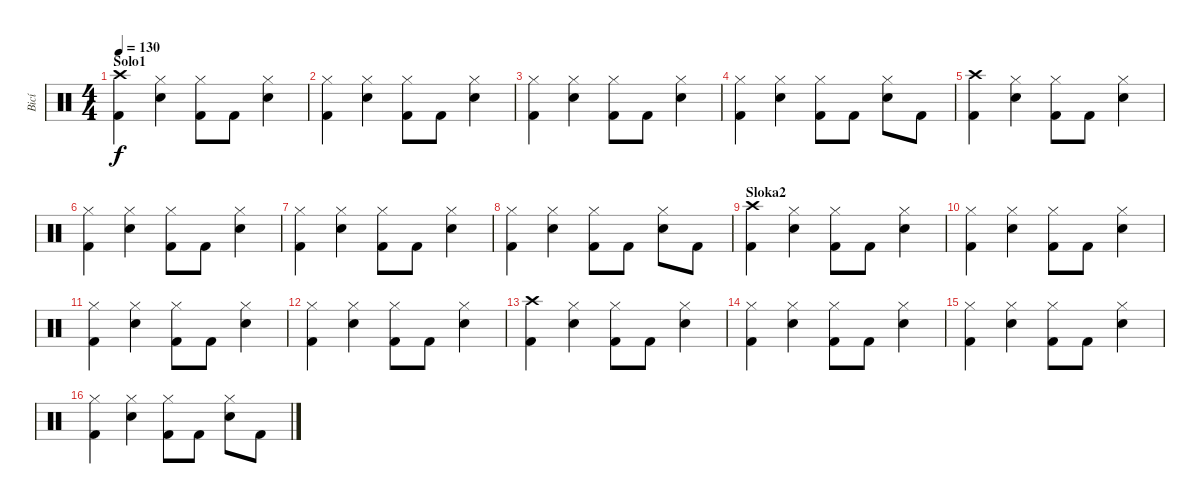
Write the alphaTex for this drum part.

\track ("Bicí" "Bicí") {instrument percussion}
\staff {score}
\articulation defaults
\ts (4 4)
\section ("" "Solo1")
\tempo 130
\clef neutral
\ks c
("Crash high (hit)" "Kick (hit) 2").4{dy f} ("Hi-Hat (closed)" "Snare (hit) 2").4 ("Hi-Hat (closed)" "Kick (hit) 2").8 "Kick (hit) 2".8 ("Hi-Hat (closed)" "Snare (hit) 2").4 |
("Hi-Hat (closed)" "Kick (hit) 2").4 ("Hi-Hat (closed)" "Snare (hit) 2").4 ("Hi-Hat (closed)" "Kick (hit) 2").8 "Kick (hit) 2".8 ("Hi-Hat (closed)" "Snare (hit) 2").4 |
("Hi-Hat (closed)" "Kick (hit) 2").4 ("Hi-Hat (closed)" "Snare (hit) 2").4 ("Hi-Hat (closed)" "Kick (hit) 2").8 "Kick (hit) 2".8 ("Hi-Hat (closed)" "Snare (hit) 2").4 |
("Hi-Hat (closed)" "Kick (hit) 2").4 ("Hi-Hat (closed)" "Snare (hit) 2").4 ("Hi-Hat (closed)" "Kick (hit) 2").8 "Kick (hit) 2".8 ("Hi-Hat (closed)" "Snare (hit) 2").8 "Kick (hit) 2".8 |
("Crash high (hit)" "Kick (hit) 2").4 ("Hi-Hat (closed)" "Snare (hit) 2").4 ("Hi-Hat (closed)" "Kick (hit) 2").8 "Kick (hit) 2".8 ("Hi-Hat (closed)" "Snare (hit) 2").4 |
("Hi-Hat (closed)" "Kick (hit) 2").4 ("Hi-Hat (closed)" "Snare (hit) 2").4 ("Hi-Hat (closed)" "Kick (hit) 2").8 "Kick (hit) 2".8 ("Hi-Hat (closed)" "Snare (hit) 2").4 |
("Hi-Hat (closed)" "Kick (hit) 2").4 ("Hi-Hat (closed)" "Snare (hit) 2").4 ("Hi-Hat (closed)" "Kick (hit) 2").8 "Kick (hit) 2".8 ("Hi-Hat (closed)" "Snare (hit) 2").4 |
("Hi-Hat (closed)" "Kick (hit) 2").4 ("Hi-Hat (closed)" "Snare (hit) 2").4 ("Hi-Hat (closed)" "Kick (hit) 2").8 "Kick (hit) 2".8 ("Hi-Hat (closed)" "Snare (hit) 2").8 "Kick (hit) 2".8 |
\section ("" "Sloka2")
("Crash high (hit)" "Kick (hit) 2").4 ("Hi-Hat (closed)" "Snare (hit) 2").4 ("Hi-Hat (closed)" "Kick (hit) 2").8 "Kick (hit) 2".8 ("Hi-Hat (closed)" "Snare (hit) 2").4 |
("Hi-Hat (closed)" "Kick (hit) 2").4 ("Hi-Hat (closed)" "Snare (hit) 2").4 ("Hi-Hat (closed)" "Kick (hit) 2").8 "Kick (hit) 2".8 ("Hi-Hat (closed)" "Snare (hit) 2").4 |
("Hi-Hat (closed)" "Kick (hit) 2").4 ("Hi-Hat (closed)" "Snare (hit) 2").4 ("Hi-Hat (closed)" "Kick (hit) 2").8 "Kick (hit) 2".8 ("Hi-Hat (closed)" "Snare (hit) 2").4 |
("Hi-Hat (closed)" "Kick (hit) 2").4 ("Hi-Hat (closed)" "Snare (hit) 2").4 ("Hi-Hat (closed)" "Kick (hit) 2").8 "Kick (hit) 2".8 ("Hi-Hat (closed)" "Snare (hit) 2").4 |
("Crash high (hit)" "Kick (hit) 2").4 ("Hi-Hat (closed)" "Snare (hit) 2").4 ("Hi-Hat (closed)" "Kick (hit) 2").8 "Kick (hit) 2".8 ("Hi-Hat (closed)" "Snare (hit) 2").4 |
("Hi-Hat (closed)" "Kick (hit) 2").4 ("Hi-Hat (closed)" "Snare (hit) 2").4 ("Hi-Hat (closed)" "Kick (hit) 2").8 "Kick (hit) 2".8 ("Hi-Hat (closed)" "Snare (hit) 2").4 |
("Hi-Hat (closed)" "Kick (hit) 2").4 ("Hi-Hat (closed)" "Snare (hit) 2").4 ("Hi-Hat (closed)" "Kick (hit) 2").8 "Kick (hit) 2".8 ("Hi-Hat (closed)" "Snare (hit) 2").4 |
("Hi-Hat (closed)" "Kick (hit) 2").4 ("Hi-Hat (closed)" "Snare (hit) 2").4 ("Hi-Hat (closed)" "Kick (hit) 2").8 "Kick (hit) 2".8 ("Hi-Hat (closed)" "Snare (hit) 2").8 "Kick (hit) 2".8
